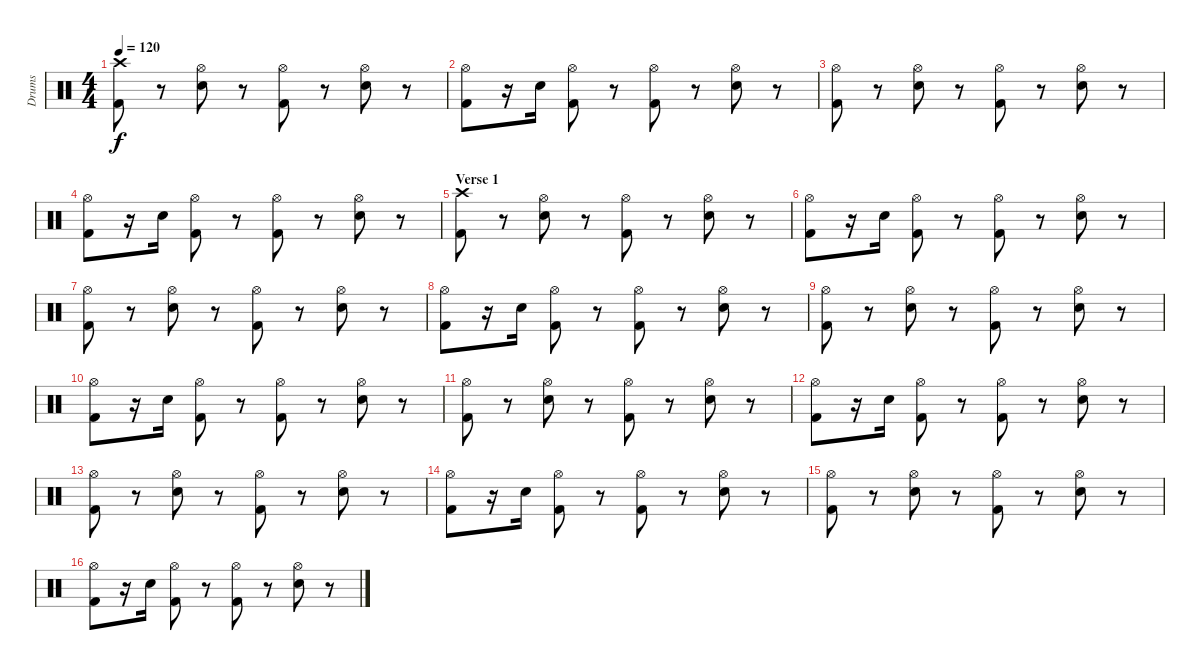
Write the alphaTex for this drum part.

\track ("Drums" "Drums") {instrument percussion}
\staff {score}
\articulation defaults
\ts (4 4)
\tempo 120
\clef neutral
\ks c
("Crash high (hit)" "Kick (hit) 2").8{dy f} r.8 ("Hi-Hat (open)" "Electric Snare (hit)").8 r.8 ("Hi-Hat (open)" "Kick (hit) 2").8 r.8 ("Hi-Hat (open)" "Electric Snare (hit)").8 r.8 |
("Hi-Hat (open)" "Kick (hit) 2").8 r.16 "Electric Snare (hit)".16 ("Hi-Hat (open)" "Kick (hit) 2").8 r.8 ("Hi-Hat (open)" "Kick (hit) 2").8 r.8 ("Hi-Hat (open)" "Electric Snare (hit)").8 r.8 |
("Hi-Hat (open)" "Kick (hit) 2").8 r.8 ("Hi-Hat (open)" "Electric Snare (hit)").8 r.8 ("Hi-Hat (open)" "Kick (hit) 2").8 r.8 ("Hi-Hat (open)" "Electric Snare (hit)").8 r.8 |
("Hi-Hat (open)" "Kick (hit) 2").8 r.16 "Electric Snare (hit)".16 ("Hi-Hat (open)" "Kick (hit) 2").8 r.8 ("Hi-Hat (open)" "Kick (hit) 2").8 r.8 ("Hi-Hat (open)" "Electric Snare (hit)").8 r.8 |
\section ("" "Verse 1")
("Crash high (hit)" "Kick (hit) 2").8 r.8 ("Hi-Hat (open)" "Electric Snare (hit)").8 r.8 ("Hi-Hat (open)" "Kick (hit) 2").8 r.8 ("Hi-Hat (open)" "Electric Snare (hit)").8 r.8 |
("Hi-Hat (open)" "Kick (hit) 2").8 r.16 "Electric Snare (hit)".16 ("Hi-Hat (open)" "Kick (hit) 2").8 r.8 ("Hi-Hat (open)" "Kick (hit) 2").8 r.8 ("Hi-Hat (open)" "Electric Snare (hit)").8 r.8 |
("Hi-Hat (open)" "Kick (hit) 2").8 r.8 ("Hi-Hat (open)" "Electric Snare (hit)").8 r.8 ("Hi-Hat (open)" "Kick (hit) 2").8 r.8 ("Hi-Hat (open)" "Electric Snare (hit)").8 r.8 |
("Hi-Hat (open)" "Kick (hit) 2").8 r.16 "Electric Snare (hit)".16 ("Hi-Hat (open)" "Kick (hit) 2").8 r.8 ("Hi-Hat (open)" "Kick (hit) 2").8 r.8 ("Hi-Hat (open)" "Electric Snare (hit)").8 r.8 |
("Hi-Hat (open)" "Kick (hit) 2").8 r.8 ("Hi-Hat (open)" "Electric Snare (hit)").8 r.8 ("Hi-Hat (open)" "Kick (hit) 2").8 r.8 ("Hi-Hat (open)" "Electric Snare (hit)").8 r.8 |
("Hi-Hat (open)" "Kick (hit) 2").8 r.16 "Electric Snare (hit)".16 ("Hi-Hat (open)" "Kick (hit) 2").8 r.8 ("Hi-Hat (open)" "Kick (hit) 2").8 r.8 ("Hi-Hat (open)" "Electric Snare (hit)").8 r.8 |
("Hi-Hat (open)" "Kick (hit) 2").8 r.8 ("Hi-Hat (open)" "Electric Snare (hit)").8 r.8 ("Hi-Hat (open)" "Kick (hit) 2").8 r.8 ("Hi-Hat (open)" "Electric Snare (hit)").8 r.8 |
("Hi-Hat (open)" "Kick (hit) 2").8 r.16 "Electric Snare (hit)".16 ("Hi-Hat (open)" "Kick (hit) 2").8 r.8 ("Hi-Hat (open)" "Kick (hit) 2").8 r.8 ("Hi-Hat (open)" "Electric Snare (hit)").8 r.8 |
("Hi-Hat (open)" "Kick (hit) 2").8 r.8 ("Hi-Hat (open)" "Electric Snare (hit)").8 r.8 ("Hi-Hat (open)" "Kick (hit) 2").8 r.8 ("Hi-Hat (open)" "Electric Snare (hit)").8 r.8 |
("Hi-Hat (open)" "Kick (hit) 2").8 r.16 "Electric Snare (hit)".16 ("Hi-Hat (open)" "Kick (hit) 2").8 r.8 ("Hi-Hat (open)" "Kick (hit) 2").8 r.8 ("Hi-Hat (open)" "Electric Snare (hit)").8 r.8 |
("Hi-Hat (open)" "Kick (hit) 2").8 r.8 ("Hi-Hat (open)" "Electric Snare (hit)").8 r.8 ("Hi-Hat (open)" "Kick (hit) 2").8 r.8 ("Hi-Hat (open)" "Electric Snare (hit)").8 r.8 |
("Hi-Hat (open)" "Kick (hit) 2").8 r.16 "Electric Snare (hit)".16 ("Hi-Hat (open)" "Kick (hit) 2").8 r.8 ("Hi-Hat (open)" "Kick (hit) 2").8 r.8 ("Hi-Hat (open)" "Electric Snare (hit)").8 r.8
